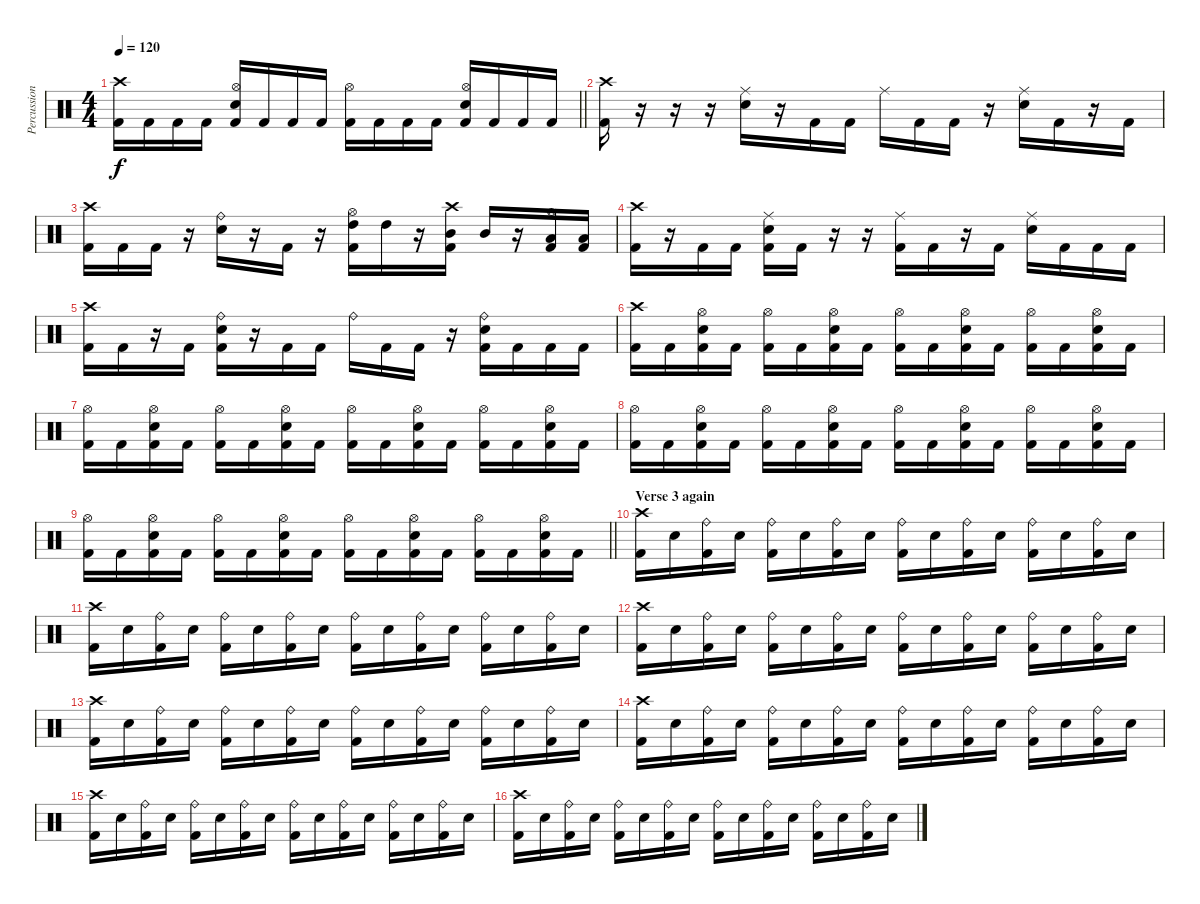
\track ("Percussion" "Percussion") {instrument percussion}
\staff {score}
\articulation defaults
\ts (4 4)
\tempo 120
\clef neutral
\barLineRight lightlight
\ks c
("Crash high (hit)" "Kick (hit) 2").16{dy f} "Kick (hit) 2".16 "Kick (hit) 2".16 "Kick (hit) 2".16 ("Hi-Hat (open)" "Electric Snare (hit)" "Kick (hit) 2").16 "Kick (hit) 2".16 "Kick (hit) 2".16 "Kick (hit) 2".16 ("Hi-Hat (open)" "Kick (hit) 2").16 "Kick (hit) 2".16 "Kick (hit) 2".16 "Kick (hit) 2".16 ("Hi-Hat (open)" "Electric Snare (hit)" "Kick (hit) 2").16 "Kick (hit) 2".16 "Kick (hit) 2".16 "Kick (hit) 2".16 |
\section ("" "")
("Crash high (hit)" "Kick (hit) 2").16 r.16 r.16 r.16 ("Ride (middle)" "Electric Snare (hit)").16 r.16 "Kick (hit) 2".16 "Kick (hit) 2".16 "Ride (middle)".16 "Kick (hit) 2".16 "Kick (hit) 2".16 r.16 ("Ride (middle)" "Electric Snare (hit)").16 "Kick (hit) 2".16 r.16 "Kick (hit) 2".16 |
("Crash high (hit)" "Kick (hit) 2").16 "Kick (hit) 2".16 "Kick (hit) 2".16 r.16 ("Ride (bell)" "Electric Snare (hit)").16 r.16 "Kick (hit) 2".16 r.16 ("Hi-Hat (open)" "High Tom (hit)" "Kick (hit) 2").16 "High Tom (hit)".16 r.16 ("Crash high (hit)" "Mid Tom (hit)" "Kick (hit) 2").16 "Mid Tom (hit)".16 r.16 ("Hi-Hat (open)" "Low Tom (hit)" "Kick (hit) 2").16 ("Low Tom (hit)" "Kick (hit) 2").16 |
("Crash high (hit)" "Kick (hit) 2").16 r.16 "Kick (hit) 2".16 "Kick (hit) 2".16 ("Ride (middle)" "Electric Snare (hit)" "Kick (hit) 2").16 "Kick (hit) 2".16 r.16 r.16 ("Ride (middle)" "Kick (hit) 2").16 "Kick (hit) 2".16 r.16 "Kick (hit) 2".16 ("Ride (middle)" "Electric Snare (hit)").16 "Kick (hit) 2".16 "Kick (hit) 2".16 "Kick (hit) 2".16 |
("Crash high (hit)" "Kick (hit) 2").16 "Kick (hit) 2".16 r.16 "Kick (hit) 2".16 ("Ride (bell)" "Electric Snare (hit)" "Kick (hit) 2").16 r.16 "Kick (hit) 2".16 "Kick (hit) 2".16 "Ride (bell)".16 "Kick (hit) 2".16 "Kick (hit) 2".16 r.16 ("Ride (bell)" "Electric Snare (hit)" "Kick (hit) 2").16 "Kick (hit) 2".16 "Kick (hit) 2".16 "Kick (hit) 2".16 |
("Crash high (hit)" "Kick (hit) 2").16 "Kick (hit) 2".16 ("Hi-Hat (open)" "Electric Snare (hit)" "Kick (hit) 2").16 "Kick (hit) 2".16 ("Hi-Hat (open)" "Kick (hit) 2").16 "Kick (hit) 2".16 ("Hi-Hat (open)" "Electric Snare (hit)" "Kick (hit) 2").16 "Kick (hit) 2".16 ("Hi-Hat (open)" "Kick (hit) 2").16 "Kick (hit) 2".16 ("Hi-Hat (open)" "Electric Snare (hit)" "Kick (hit) 2").16 "Kick (hit) 2".16 ("Hi-Hat (open)" "Kick (hit) 2").16 "Kick (hit) 2".16 ("Hi-Hat (open)" "Electric Snare (hit)" "Kick (hit) 2").16 "Kick (hit) 2".16 |
("Hi-Hat (open)" "Kick (hit) 2").16 "Kick (hit) 2".16 ("Hi-Hat (open)" "Electric Snare (hit)" "Kick (hit) 2").16 "Kick (hit) 2".16 ("Hi-Hat (open)" "Kick (hit) 2").16 "Kick (hit) 2".16 ("Hi-Hat (open)" "Electric Snare (hit)" "Kick (hit) 2").16 "Kick (hit) 2".16 ("Hi-Hat (open)" "Kick (hit) 2").16 "Kick (hit) 2".16 ("Hi-Hat (open)" "Electric Snare (hit)" "Kick (hit) 2").16 "Kick (hit) 2".16 ("Hi-Hat (open)" "Kick (hit) 2").16 "Kick (hit) 2".16 ("Hi-Hat (open)" "Electric Snare (hit)" "Kick (hit) 2").16 "Kick (hit) 2".16 |
("Hi-Hat (open)" "Kick (hit) 2").16 "Kick (hit) 2".16 ("Hi-Hat (open)" "Electric Snare (hit)" "Kick (hit) 2").16 "Kick (hit) 2".16 ("Hi-Hat (open)" "Kick (hit) 2").16 "Kick (hit) 2".16 ("Hi-Hat (open)" "Electric Snare (hit)" "Kick (hit) 2").16 "Kick (hit) 2".16 ("Hi-Hat (open)" "Kick (hit) 2").16 "Kick (hit) 2".16 ("Hi-Hat (open)" "Electric Snare (hit)" "Kick (hit) 2").16 "Kick (hit) 2".16 ("Hi-Hat (open)" "Kick (hit) 2").16 "Kick (hit) 2".16 ("Hi-Hat (open)" "Electric Snare (hit)" "Kick (hit) 2").16 "Kick (hit) 2".16 |
\barLineRight lightlight
("Hi-Hat (open)" "Kick (hit) 2").16 "Kick (hit) 2".16 ("Hi-Hat (open)" "Electric Snare (hit)" "Kick (hit) 2").16 "Kick (hit) 2".16 ("Hi-Hat (open)" "Kick (hit) 2").16 "Kick (hit) 2".16 ("Hi-Hat (open)" "Electric Snare (hit)" "Kick (hit) 2").16 "Kick (hit) 2".16 ("Hi-Hat (open)" "Kick (hit) 2").16 "Kick (hit) 2".16 ("Hi-Hat (open)" "Electric Snare (hit)" "Kick (hit) 2").16 "Kick (hit) 2".16 ("Hi-Hat (open)" "Kick (hit) 2").16 "Kick (hit) 2".16 ("Hi-Hat (open)" "Electric Snare (hit)" "Kick (hit) 2").16 "Kick (hit) 2".16 |
\section ("" "Verse 3 again")
("Crash high (hit)" "Kick (hit) 2").16 "Electric Snare (hit)".16 ("Ride (bell)" "Kick (hit) 2").16 "Electric Snare (hit)".16 ("Ride (bell)" "Kick (hit) 2").16 "Electric Snare (hit)".16 ("Ride (bell)" "Kick (hit) 2").16 "Electric Snare (hit)".16 ("Ride (bell)" "Kick (hit) 2").16 "Electric Snare (hit)".16 ("Ride (bell)" "Kick (hit) 2").16 "Electric Snare (hit)".16 ("Ride (bell)" "Kick (hit) 2").16 "Electric Snare (hit)".16 ("Ride (bell)" "Kick (hit) 2").16 "Electric Snare (hit)".16 |
("Crash high (hit)" "Kick (hit) 2").16 "Electric Snare (hit)".16 ("Ride (bell)" "Kick (hit) 2").16 "Electric Snare (hit)".16 ("Ride (bell)" "Kick (hit) 2").16 "Electric Snare (hit)".16 ("Ride (bell)" "Kick (hit) 2").16 "Electric Snare (hit)".16 ("Ride (bell)" "Kick (hit) 2").16 "Electric Snare (hit)".16 ("Ride (bell)" "Kick (hit) 2").16 "Electric Snare (hit)".16 ("Ride (bell)" "Kick (hit) 2").16 "Electric Snare (hit)".16 ("Ride (bell)" "Kick (hit) 2").16 "Electric Snare (hit)".16 |
("Crash high (hit)" "Kick (hit) 2").16 "Electric Snare (hit)".16 ("Ride (bell)" "Kick (hit) 2").16 "Electric Snare (hit)".16 ("Ride (bell)" "Kick (hit) 2").16 "Electric Snare (hit)".16 ("Ride (bell)" "Kick (hit) 2").16 "Electric Snare (hit)".16 ("Ride (bell)" "Kick (hit) 2").16 "Electric Snare (hit)".16 ("Ride (bell)" "Kick (hit) 2").16 "Electric Snare (hit)".16 ("Ride (bell)" "Kick (hit) 2").16 "Electric Snare (hit)".16 ("Ride (bell)" "Kick (hit) 2").16 "Electric Snare (hit)".16 |
("Crash high (hit)" "Kick (hit) 2").16 "Electric Snare (hit)".16 ("Ride (bell)" "Kick (hit) 2").16 "Electric Snare (hit)".16 ("Ride (bell)" "Kick (hit) 2").16 "Electric Snare (hit)".16 ("Ride (bell)" "Kick (hit) 2").16 "Electric Snare (hit)".16 ("Ride (bell)" "Kick (hit) 2").16 "Electric Snare (hit)".16 ("Ride (bell)" "Kick (hit) 2").16 "Electric Snare (hit)".16 ("Ride (bell)" "Kick (hit) 2").16 "Electric Snare (hit)".16 ("Ride (bell)" "Kick (hit) 2").16 "Electric Snare (hit)".16 |
("Crash high (hit)" "Kick (hit) 2").16 "Electric Snare (hit)".16 ("Ride (bell)" "Kick (hit) 2").16 "Electric Snare (hit)".16 ("Ride (bell)" "Kick (hit) 2").16 "Electric Snare (hit)".16 ("Ride (bell)" "Kick (hit) 2").16 "Electric Snare (hit)".16 ("Ride (bell)" "Kick (hit) 2").16 "Electric Snare (hit)".16 ("Ride (bell)" "Kick (hit) 2").16 "Electric Snare (hit)".16 ("Ride (bell)" "Kick (hit) 2").16 "Electric Snare (hit)".16 ("Ride (bell)" "Kick (hit) 2").16 "Electric Snare (hit)".16 |
("Crash high (hit)" "Kick (hit) 2").16 "Electric Snare (hit)".16 ("Ride (bell)" "Kick (hit) 2").16 "Electric Snare (hit)".16 ("Ride (bell)" "Kick (hit) 2").16 "Electric Snare (hit)".16 ("Ride (bell)" "Kick (hit) 2").16 "Electric Snare (hit)".16 ("Ride (bell)" "Kick (hit) 2").16 "Electric Snare (hit)".16 ("Ride (bell)" "Kick (hit) 2").16 "Electric Snare (hit)".16 ("Ride (bell)" "Kick (hit) 2").16 "Electric Snare (hit)".16 ("Ride (bell)" "Kick (hit) 2").16 "Electric Snare (hit)".16 |
("Crash high (hit)" "Kick (hit) 2").16 "Electric Snare (hit)".16 ("Ride (bell)" "Kick (hit) 2").16 "Electric Snare (hit)".16 ("Ride (bell)" "Kick (hit) 2").16 "Electric Snare (hit)".16 ("Ride (bell)" "Kick (hit) 2").16 "Electric Snare (hit)".16 ("Ride (bell)" "Kick (hit) 2").16 "Electric Snare (hit)".16 ("Ride (bell)" "Kick (hit) 2").16 "Electric Snare (hit)".16 ("Ride (bell)" "Kick (hit) 2").16 "Electric Snare (hit)".16 ("Ride (bell)" "Kick (hit) 2").16 "Electric Snare (hit)".16
